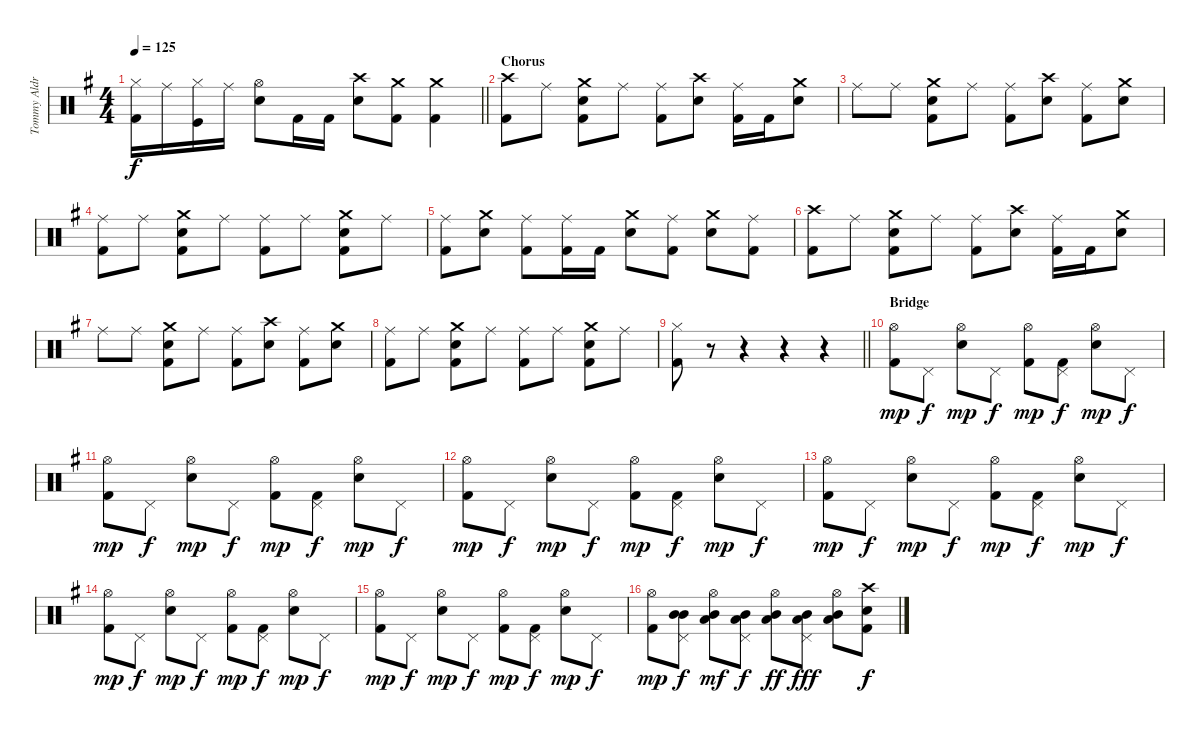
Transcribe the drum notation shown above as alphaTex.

\track ("Tommy Aldridge" "Tommy Aldr") {instrument percussion}
\staff {score}
\articulation defaults
\ts (4 4)
\tempo 125
\clef neutral
\barLineRight lightlight
\ks eminor
("Hi-Hat (closed)" "Kick (hit) 2").16{dy f} "Ride (middle)".16 ("Hi-Hat (closed)" "Kick (hit)").16 "Ride (middle)".16 ("Hi-Hat (open)" "Snare (hit) 2").8 "Kick (hit) 2".16 "Kick (hit) 2".16 ("Crash high (hit)" "Snare (hit) 2").8 ("Crash medium (hit)" "Kick (hit) 2").8 ("Crash medium (hit)" "Kick (hit) 2").4 |
\section ("" "Chorus")
("Crash high (hit)" "Kick (hit) 2").8 "Ride (middle)".8 ("Crash medium (hit)" "Snare (hit) 2" "Kick (hit) 2").8 "Ride (middle)".8 ("Ride (middle)" "Kick (hit) 2").8 ("Crash high (hit)" "Snare (hit) 2").8 ("Ride (middle)" "Kick (hit) 2").16 "Kick (hit) 2".16 ("Crash medium (hit)" "Snare (hit) 2").8 |
"Ride (middle)".8 "Ride (middle)".8 ("Crash medium (hit)" "Snare (hit) 2" "Kick (hit) 2").8 "Ride (middle)".8 ("Ride (middle)" "Kick (hit) 2").8 ("Crash high (hit)" "Snare (hit) 2").8 ("Ride (middle)" "Kick (hit) 2").8 ("Crash medium (hit)" "Snare (hit) 2").8 |
("Ride (middle)" "Kick (hit) 2").8 "Ride (middle)".8 ("Crash medium (hit)" "Snare (hit) 2" "Kick (hit) 2").8 "Ride (middle)".8 ("Ride (middle)" "Kick (hit) 2").8 "Ride (middle)".8 ("Crash medium (hit)" "Snare (hit) 2" "Kick (hit) 2").8 "Ride (middle)".8 |
("Ride (middle)" "Kick (hit) 2").8 ("Crash medium (hit)" "Snare (hit) 2").8 ("Ride (middle)" "Kick (hit) 2").8 ("Ride (middle)" "Kick (hit) 2").16 "Kick (hit) 2".16 ("Crash medium (hit)" "Snare (hit) 2").8 ("Ride (middle)" "Kick (hit) 2").8 ("Crash medium (hit)" "Snare (hit) 2").8 ("Ride (middle)" "Kick (hit) 2").8 |
("Crash high (hit)" "Kick (hit) 2").8 "Ride (middle)".8 ("Crash medium (hit)" "Snare (hit) 2" "Kick (hit) 2").8 "Ride (middle)".8 ("Ride (middle)" "Kick (hit) 2").8 ("Crash high (hit)" "Snare (hit) 2").8 ("Ride (middle)" "Kick (hit) 2").16 "Kick (hit) 2".16 ("Crash medium (hit)" "Snare (hit) 2").8 |
"Ride (middle)".8 "Ride (middle)".8 ("Crash medium (hit)" "Snare (hit) 2" "Kick (hit) 2").8 "Ride (middle)".8 ("Ride (middle)" "Kick (hit) 2").8 ("Crash high (hit)" "Snare (hit) 2").8 ("Ride (middle)" "Kick (hit) 2").8 ("Crash medium (hit)" "Snare (hit) 2").8 |
("Ride (middle)" "Kick (hit) 2").8 "Ride (middle)".8 ("Crash medium (hit)" "Snare (hit) 2" "Kick (hit) 2").8 "Ride (middle)".8 ("Ride (middle)" "Kick (hit) 2").8 "Ride (middle)".8 ("Crash medium (hit)" "Snare (hit) 2" "Kick (hit) 2").8 "Ride (middle)".8 |
\barLineRight lightlight
("Hi-Hat (closed)" "Kick (hit) 2").8 r.8 r.4 r.4 r.4 |
\section ("" "Bridge")
("Hi-Hat (open)" "Kick (hit) 2").8{dy mp} "Pedal Hi-Hat (hit)".8{dy f} ("Hi-Hat (open)" "Snare (hit) 2").8{dy mp} "Pedal Hi-Hat (hit)".8{dy f} ("Hi-Hat (open)" "Kick (hit) 2").8{dy mp} ("Pedal Hi-Hat (hit)" "Kick (hit) 2").8{dy f} ("Hi-Hat (open)" "Snare (hit) 2").8{dy mp} "Pedal Hi-Hat (hit)".8{dy f} |
("Hi-Hat (open)" "Kick (hit) 2").8{dy mp} "Pedal Hi-Hat (hit)".8{dy f} ("Hi-Hat (open)" "Snare (hit) 2").8{dy mp} "Pedal Hi-Hat (hit)".8{dy f} ("Hi-Hat (open)" "Kick (hit) 2").8{dy mp} ("Pedal Hi-Hat (hit)" "Kick (hit) 2").8{dy f} ("Hi-Hat (open)" "Snare (hit) 2").8{dy mp} "Pedal Hi-Hat (hit)".8{dy f} |
("Hi-Hat (open)" "Kick (hit) 2").8{dy mp} "Pedal Hi-Hat (hit)".8{dy f} ("Hi-Hat (open)" "Snare (hit) 2").8{dy mp} "Pedal Hi-Hat (hit)".8{dy f} ("Hi-Hat (open)" "Kick (hit) 2").8{dy mp} ("Pedal Hi-Hat (hit)" "Kick (hit) 2").8{dy f} ("Hi-Hat (open)" "Snare (hit) 2").8{dy mp} "Pedal Hi-Hat (hit)".8{dy f} |
("Hi-Hat (open)" "Kick (hit) 2").8{dy mp} "Pedal Hi-Hat (hit)".8{dy f} ("Hi-Hat (open)" "Snare (hit) 2").8{dy mp} "Pedal Hi-Hat (hit)".8{dy f} ("Hi-Hat (open)" "Kick (hit) 2").8{dy mp} ("Pedal Hi-Hat (hit)" "Kick (hit) 2").8{dy f} ("Hi-Hat (open)" "Snare (hit) 2").8{dy mp} "Pedal Hi-Hat (hit)".8{dy f} |
("Hi-Hat (open)" "Kick (hit) 2").8{dy mp} "Pedal Hi-Hat (hit)".8{dy f} ("Hi-Hat (open)" "Snare (hit) 2").8{dy mp} "Pedal Hi-Hat (hit)".8{dy f} ("Hi-Hat (open)" "Kick (hit) 2").8{dy mp} ("Pedal Hi-Hat (hit)" "Kick (hit) 2").8{dy f} ("Hi-Hat (open)" "Snare (hit) 2").8{dy mp} "Pedal Hi-Hat (hit)".8{dy f} |
("Hi-Hat (open)" "Kick (hit) 2").8{dy mp} "Pedal Hi-Hat (hit)".8{dy f} ("Hi-Hat (open)" "Snare (hit) 2").8{dy mp} "Pedal Hi-Hat (hit)".8{dy f} ("Hi-Hat (open)" "Kick (hit) 2").8{dy mp} ("Pedal Hi-Hat (hit)" "Kick (hit) 2").8{dy f} ("Hi-Hat (open)" "Snare (hit) 2").8{dy mp} "Pedal Hi-Hat (hit)".8{dy f} |
("Hi-Hat (open)" "Kick (hit) 2").8{dy mp} ("Pedal Hi-Hat (hit)" "Mid Tom (hit)" "Mid Tom (hit)").8{dy f} ("Hi-Hat (open)" "Mid Tom (hit)" "Low Tom (hit)").8{dy mf} ("Pedal Hi-Hat (hit)" "Mid Tom (hit)" "Low Tom (hit)").8{dy f} ("Hi-Hat (open)" "Mid Tom (hit)" "Low Tom (hit)").8{dy ff} ("Pedal Hi-Hat (hit)" "Mid Tom (hit)" "Low Tom (hit)").8{dy fff} ("Hi-Hat (open)" "Mid Tom (hit)" "Low Tom (hit)").8 ("Crash high (hit)" "Snare (hit) 2" "Kick (hit) 2").8{dy f}
